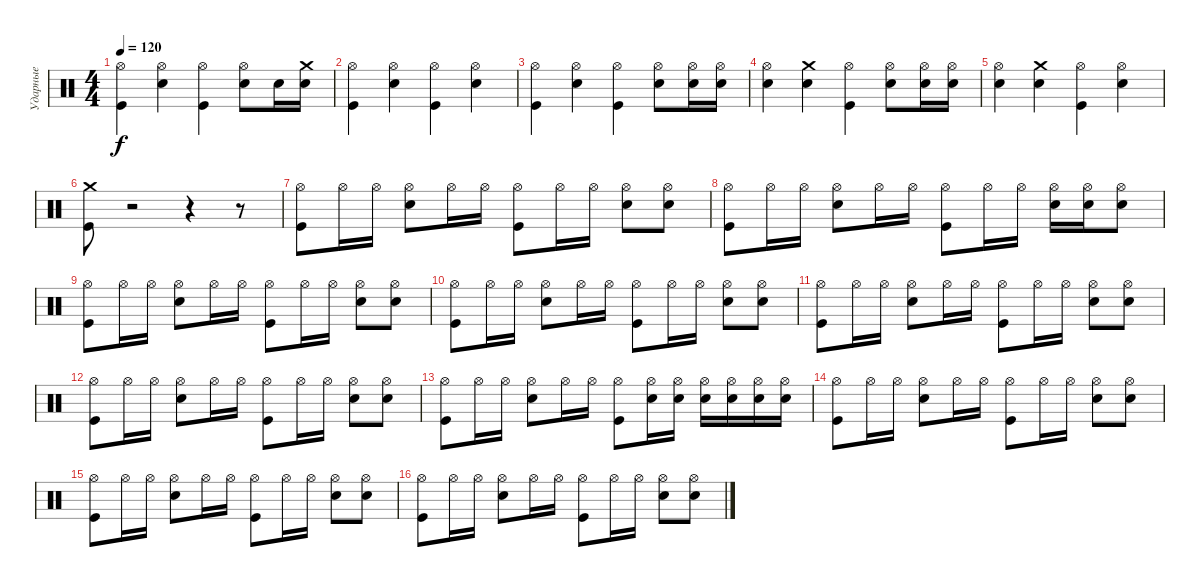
\track ("Ударные" "Ударные") {instrument percussion}
\staff {score}
\articulation defaults
\ts (4 4)
\tempo 120
\clef neutral
\ks c
("Hi-Hat (open)" "Kick (hit)").4{dy f} ("Hi-Hat (open)" "Snare (hit) 2").4 ("Hi-Hat (open)" "Kick (hit)").4 ("Hi-Hat (open)" "Snare (hit) 2").8 "Snare (hit) 2".16 ("Crash medium (hit)" "Snare (hit) 2").16 |
("Hi-Hat (open)" "Kick (hit)").4 ("Hi-Hat (open)" "Snare (hit) 2").4 ("Hi-Hat (open)" "Kick (hit)").4 ("Hi-Hat (open)" "Snare (hit) 2").4 |
("Hi-Hat (open)" "Kick (hit)").4 ("Hi-Hat (open)" "Snare (hit) 2").4 ("Hi-Hat (open)" "Kick (hit)").4 ("Hi-Hat (open)" "Snare (hit) 2").8 ("Hi-Hat (open)" "Snare (hit) 2").16 ("Hi-Hat (open)" "Snare (hit) 2").16 |
("Hi-Hat (open)" "Snare (hit) 2").4 ("Crash medium (hit)" "Snare (hit) 2").4 ("Hi-Hat (open)" "Kick (hit)").4 ("Hi-Hat (open)" "Snare (hit) 2").8 ("Hi-Hat (open)" "Snare (hit) 2").16 ("Hi-Hat (open)" "Snare (hit) 2").16 |
("Hi-Hat (open)" "Snare (hit) 2").4 ("Crash medium (hit)" "Snare (hit) 2").4 ("Hi-Hat (open)" "Kick (hit)").4 ("Hi-Hat (open)" "Snare (hit) 2").4 |
("Crash medium (hit)" "Kick (hit)").8 r.2 r.4 r.8 |
("Hi-Hat (open)" "Kick (hit)").8 "Hi-Hat (open)".16 "Hi-Hat (open)".16 ("Hi-Hat (open)" "Snare (hit) 2").8 "Hi-Hat (open)".16 "Hi-Hat (open)".16 ("Hi-Hat (open)" "Kick (hit)").8 "Hi-Hat (open)".16 "Hi-Hat (open)".16 ("Snare (hit) 2" "Hi-Hat (open)").8 ("Snare (hit) 2" "Hi-Hat (open)").8 |
("Hi-Hat (open)" "Kick (hit)").8 "Hi-Hat (open)".16 "Hi-Hat (open)".16 ("Hi-Hat (open)" "Snare (hit) 2").8 "Hi-Hat (open)".16 "Hi-Hat (open)".16 ("Hi-Hat (open)" "Kick (hit)").8 "Hi-Hat (open)".16 "Hi-Hat (open)".16 ("Snare (hit) 2" "Hi-Hat (open)").16 ("Snare (hit) 2" "Hi-Hat (open)").16 ("Hi-Hat (open)" "Snare (hit) 2").8 |
("Hi-Hat (open)" "Kick (hit)").8 "Hi-Hat (open)".16 "Hi-Hat (open)".16 ("Hi-Hat (open)" "Snare (hit) 2").8 "Hi-Hat (open)".16 "Hi-Hat (open)".16 ("Hi-Hat (open)" "Kick (hit)").8 "Hi-Hat (open)".16 "Hi-Hat (open)".16 ("Snare (hit) 2" "Hi-Hat (open)").8 ("Snare (hit) 2" "Hi-Hat (open)").8 |
("Hi-Hat (open)" "Kick (hit)").8 "Hi-Hat (open)".16 "Hi-Hat (open)".16 ("Hi-Hat (open)" "Snare (hit) 2").8 "Hi-Hat (open)".16 "Hi-Hat (open)".16 ("Hi-Hat (open)" "Kick (hit)").8 "Hi-Hat (open)".16 "Hi-Hat (open)".16 ("Snare (hit) 2" "Hi-Hat (open)").8 ("Snare (hit) 2" "Hi-Hat (open)").8 |
("Hi-Hat (open)" "Kick (hit)").8 "Hi-Hat (open)".16 "Hi-Hat (open)".16 ("Hi-Hat (open)" "Snare (hit) 2").8 "Hi-Hat (open)".16 "Hi-Hat (open)".16 ("Hi-Hat (open)" "Kick (hit)").8 "Hi-Hat (open)".16 "Hi-Hat (open)".16 ("Snare (hit) 2" "Hi-Hat (open)").8 ("Snare (hit) 2" "Hi-Hat (open)").8 |
("Hi-Hat (open)" "Kick (hit)").8 "Hi-Hat (open)".16 "Hi-Hat (open)".16 ("Hi-Hat (open)" "Snare (hit) 2").8 "Hi-Hat (open)".16 "Hi-Hat (open)".16 ("Hi-Hat (open)" "Kick (hit)").8 "Hi-Hat (open)".16 "Hi-Hat (open)".16 ("Snare (hit) 2" "Hi-Hat (open)").8 ("Snare (hit) 2" "Hi-Hat (open)").8 |
("Hi-Hat (open)" "Kick (hit)").8 "Hi-Hat (open)".16 "Hi-Hat (open)".16 ("Hi-Hat (open)" "Snare (hit) 2").8 "Hi-Hat (open)".16 "Hi-Hat (open)".16 ("Hi-Hat (open)" "Kick (hit)").8 ("Hi-Hat (open)" "Snare (hit) 2").16 ("Hi-Hat (open)" "Snare (hit) 2").16 ("Snare (hit) 2" "Hi-Hat (open)").16 ("Snare (hit) 2" "Hi-Hat (open)").16 ("Hi-Hat (open)" "Snare (hit) 2").16 ("Hi-Hat (open)" "Snare (hit) 2").16 |
("Hi-Hat (open)" "Kick (hit)").8 "Hi-Hat (open)".16 "Hi-Hat (open)".16 ("Hi-Hat (open)" "Snare (hit) 2").8 "Hi-Hat (open)".16 "Hi-Hat (open)".16 ("Hi-Hat (open)" "Kick (hit)").8 "Hi-Hat (open)".16 "Hi-Hat (open)".16 ("Snare (hit) 2" "Hi-Hat (open)").8 ("Snare (hit) 2" "Hi-Hat (open)").8 |
("Hi-Hat (open)" "Kick (hit)").8 "Hi-Hat (open)".16 "Hi-Hat (open)".16 ("Hi-Hat (open)" "Snare (hit) 2").8 "Hi-Hat (open)".16 "Hi-Hat (open)".16 ("Hi-Hat (open)" "Kick (hit)").8 "Hi-Hat (open)".16 "Hi-Hat (open)".16 ("Snare (hit) 2" "Hi-Hat (open)").8 ("Snare (hit) 2" "Hi-Hat (open)").8 |
("Hi-Hat (open)" "Kick (hit)").8 "Hi-Hat (open)".16 "Hi-Hat (open)".16 ("Hi-Hat (open)" "Snare (hit) 2").8 "Hi-Hat (open)".16 "Hi-Hat (open)".16 ("Hi-Hat (open)" "Kick (hit)").8 "Hi-Hat (open)".16 "Hi-Hat (open)".16 ("Snare (hit) 2" "Hi-Hat (open)").8 ("Snare (hit) 2" "Hi-Hat (open)").8
